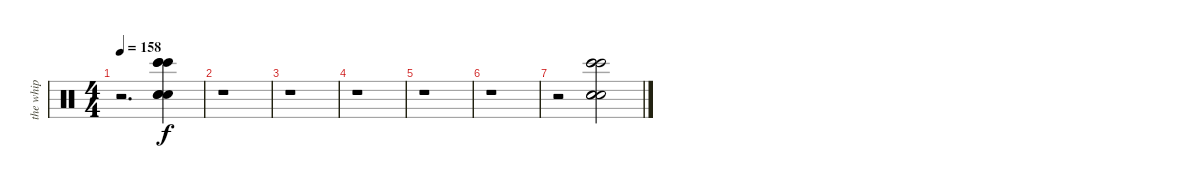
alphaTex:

\track ("the whip " "the whip ") {instrument percussion}
\staff {score}
\articulation defaults
\ts (4 4)
\tempo 158
\clef neutral
\ks c
r.2{d dy f} ("Hand Clap (hit)" "Hand Clap (hit)" "Hand Clap (hit)" "Bongo High (hit)" "Bongo High (hit)" "Bongo High (hit)").4 |
r.1 |
r.1 |
r.1 |
r.1 |
r.1 |
r.2 ("Hand Clap (hit)" "Hand Clap (hit)" "Hand Clap (hit)" "Bongo High (hit)" "Bongo High (hit)" "Bongo High (hit)").2
